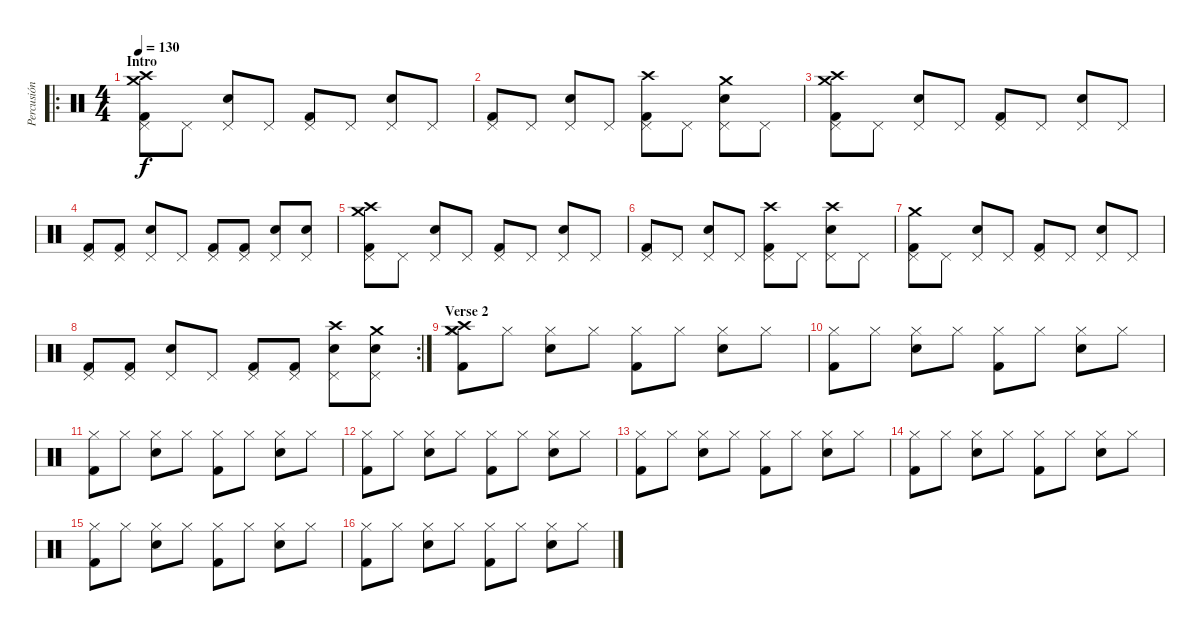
\track ("Percusión" "Percusión") {instrument percussion}
\staff {score}
\articulation defaults
\ro
\ts (4 4)
\section ("" "Intro")
\tempo 130
\clef neutral
\ks c
("Crash medium (hit)" "Crash high (hit)" "Pedal Hi-Hat (hit)" "Kick (hit) 2").8{dy f} "Pedal Hi-Hat (hit)".8 ("Pedal Hi-Hat (hit)" "Snare (hit) 2").8 "Pedal Hi-Hat (hit)".8 ("Pedal Hi-Hat (hit)" "Kick (hit) 2").8 "Pedal Hi-Hat (hit)".8 ("Pedal Hi-Hat (hit)" "Snare (hit) 2").8 "Pedal Hi-Hat (hit)".8 |
("Pedal Hi-Hat (hit)" "Kick (hit) 2").8 "Pedal Hi-Hat (hit)".8 ("Pedal Hi-Hat (hit)" "Snare (hit) 2").8 "Pedal Hi-Hat (hit)".8 ("Crash high (hit)" "Pedal Hi-Hat (hit)" "Kick (hit) 2").8 "Pedal Hi-Hat (hit)".8 ("Crash medium (hit)" "Pedal Hi-Hat (hit)" "Snare (hit) 2").8 "Pedal Hi-Hat (hit)".8 |
("Crash medium (hit)" "Crash high (hit)" "Pedal Hi-Hat (hit)" "Kick (hit) 2").8 "Pedal Hi-Hat (hit)".8 ("Pedal Hi-Hat (hit)" "Snare (hit) 2").8 "Pedal Hi-Hat (hit)".8 ("Pedal Hi-Hat (hit)" "Kick (hit) 2").8 "Pedal Hi-Hat (hit)".8 ("Pedal Hi-Hat (hit)" "Snare (hit) 2").8 "Pedal Hi-Hat (hit)".8 |
("Pedal Hi-Hat (hit)" "Kick (hit) 2").8 ("Pedal Hi-Hat (hit)" "Kick (hit) 2").8 ("Pedal Hi-Hat (hit)" "Snare (hit) 2").8 "Pedal Hi-Hat (hit)".8 ("Pedal Hi-Hat (hit)" "Kick (hit) 2").8 ("Pedal Hi-Hat (hit)" "Kick (hit) 2").8 ("Pedal Hi-Hat (hit)" "Snare (hit) 2").8 ("Pedal Hi-Hat (hit)" "Snare (hit) 2").8 |
("Crash medium (hit)" "Crash high (hit)" "Pedal Hi-Hat (hit)" "Kick (hit) 2").8 "Pedal Hi-Hat (hit)".8 ("Pedal Hi-Hat (hit)" "Snare (hit) 2").8 "Pedal Hi-Hat (hit)".8 ("Pedal Hi-Hat (hit)" "Kick (hit) 2").8 "Pedal Hi-Hat (hit)".8 ("Pedal Hi-Hat (hit)" "Snare (hit) 2").8 "Pedal Hi-Hat (hit)".8 |
("Pedal Hi-Hat (hit)" "Kick (hit) 2").8 "Pedal Hi-Hat (hit)".8 ("Pedal Hi-Hat (hit)" "Snare (hit) 2").8 "Pedal Hi-Hat (hit)".8 ("Crash high (hit)" "Pedal Hi-Hat (hit)" "Kick (hit) 2").8 "Pedal Hi-Hat (hit)".8 ("Crash high (hit)" "Pedal Hi-Hat (hit)" "Snare (hit) 2").8 "Pedal Hi-Hat (hit)".8 |
("Crash medium (hit)" "Pedal Hi-Hat (hit)" "Kick (hit) 2").8 "Pedal Hi-Hat (hit)".8 ("Pedal Hi-Hat (hit)" "Snare (hit) 2").8 "Pedal Hi-Hat (hit)".8 ("Pedal Hi-Hat (hit)" "Kick (hit) 2").8 "Pedal Hi-Hat (hit)".8 ("Pedal Hi-Hat (hit)" "Snare (hit) 2").8 "Pedal Hi-Hat (hit)".8 |
\rc 2
("Pedal Hi-Hat (hit)" "Kick (hit) 2").8 ("Pedal Hi-Hat (hit)" "Kick (hit) 2").8 ("Pedal Hi-Hat (hit)" "Snare (hit) 2").8 "Pedal Hi-Hat (hit)".8 ("Pedal Hi-Hat (hit)" "Kick (hit) 2").8 ("Pedal Hi-Hat (hit)" "Kick (hit) 2").8 ("Crash high (hit)" "Pedal Hi-Hat (hit)" "Snare (hit) 2").8 ("Crash medium (hit)" "Pedal Hi-Hat (hit)" "Snare (hit) 2").8 |
\section ("" "Verse 2")
("Crash medium (hit)" "Crash high (hit)" "Hi-Hat (closed)" "Kick (hit) 2").8 "Hi-Hat (closed)".8 ("Hi-Hat (closed)" "Snare (hit) 2").8 "Hi-Hat (closed)".8 ("Hi-Hat (closed)" "Kick (hit) 2").8 "Hi-Hat (closed)".8 ("Hi-Hat (closed)" "Snare (hit) 2").8 "Hi-Hat (closed)".8 |
("Hi-Hat (closed)" "Kick (hit) 2").8 "Hi-Hat (closed)".8 ("Hi-Hat (closed)" "Snare (hit) 2").8 "Hi-Hat (closed)".8 ("Hi-Hat (closed)" "Kick (hit) 2").8 "Hi-Hat (closed)".8 ("Hi-Hat (closed)" "Snare (hit) 2").8 "Hi-Hat (closed)".8 |
("Hi-Hat (closed)" "Kick (hit) 2").8 "Hi-Hat (closed)".8 ("Hi-Hat (closed)" "Snare (hit) 2").8 "Hi-Hat (closed)".8 ("Hi-Hat (closed)" "Kick (hit) 2").8 "Hi-Hat (closed)".8 ("Hi-Hat (closed)" "Snare (hit) 2").8 "Hi-Hat (closed)".8 |
("Hi-Hat (closed)" "Kick (hit) 2").8 "Hi-Hat (closed)".8 ("Hi-Hat (closed)" "Snare (hit) 2").8 "Hi-Hat (closed)".8 ("Hi-Hat (closed)" "Kick (hit) 2").8 "Hi-Hat (closed)".8 ("Hi-Hat (closed)" "Snare (hit) 2").8 "Hi-Hat (closed)".8 |
("Hi-Hat (closed)" "Kick (hit) 2").8 "Hi-Hat (closed)".8 ("Hi-Hat (closed)" "Snare (hit) 2").8 "Hi-Hat (closed)".8 ("Hi-Hat (closed)" "Kick (hit) 2").8 "Hi-Hat (closed)".8 ("Hi-Hat (closed)" "Snare (hit) 2").8 "Hi-Hat (closed)".8 |
("Hi-Hat (closed)" "Kick (hit) 2").8 "Hi-Hat (closed)".8 ("Hi-Hat (closed)" "Snare (hit) 2").8 "Hi-Hat (closed)".8 ("Hi-Hat (closed)" "Kick (hit) 2").8 "Hi-Hat (closed)".8 ("Hi-Hat (closed)" "Snare (hit) 2").8 "Hi-Hat (closed)".8 |
("Hi-Hat (closed)" "Kick (hit) 2").8 "Hi-Hat (closed)".8 ("Hi-Hat (closed)" "Snare (hit) 2").8 "Hi-Hat (closed)".8 ("Hi-Hat (closed)" "Kick (hit) 2").8 "Hi-Hat (closed)".8 ("Hi-Hat (closed)" "Snare (hit) 2").8 "Hi-Hat (closed)".8 |
("Hi-Hat (closed)" "Kick (hit) 2").8 "Hi-Hat (closed)".8 ("Hi-Hat (closed)" "Snare (hit) 2").8 "Hi-Hat (closed)".8 ("Hi-Hat (closed)" "Kick (hit) 2").8 "Hi-Hat (closed)".8 ("Hi-Hat (closed)" "Snare (hit) 2").8 "Hi-Hat (closed)".8
